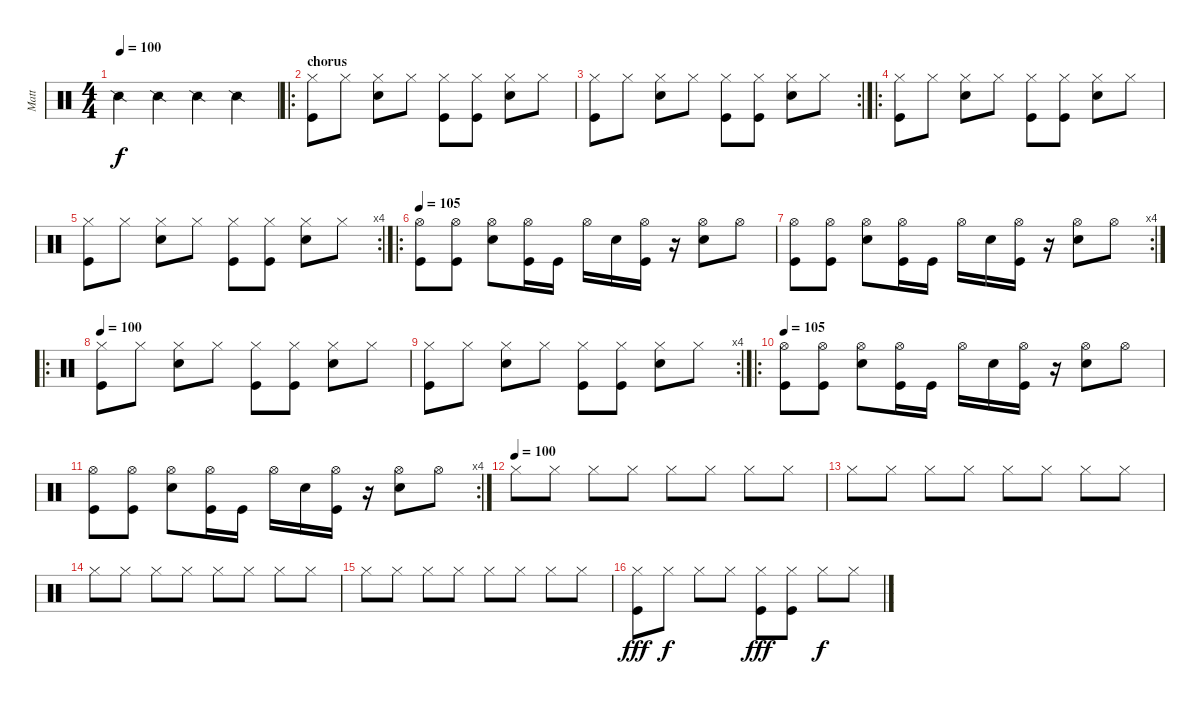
\track ("Matt" "Matt") {instrument percussion}
\staff {score}
\articulation defaults
\ts (4 4)
\tempo 100
\clef neutral
\ks c "Snare (side stick) 2".4{dy f} "Snare (side stick) 2".4 "Snare (side stick) 2".4 "Snare (side stick) 2".4
|
\ro
\section ("" "chorus")
("Hi-Hat (closed)" "Kick (hit)").8 "Hi-Hat (closed)".8 ("Hi-Hat (closed)" "Snare (hit) 2").8 "Hi-Hat (closed)".8 ("Hi-Hat (closed)" "Kick (hit)").8 ("Hi-Hat (closed)" "Kick (hit)").8 ("Hi-Hat (closed)" "Snare (hit) 2").8 "Hi-Hat (closed)".8 |
\rc 2
("Hi-Hat (closed)" "Kick (hit)").8 "Hi-Hat (closed)".8 ("Hi-Hat (closed)" "Snare (hit) 2").8 "Hi-Hat (closed)".8 ("Hi-Hat (closed)" "Kick (hit)").8 ("Hi-Hat (closed)" "Kick (hit)").8 ("Hi-Hat (closed)" "Snare (hit) 2").8 "Hi-Hat (closed)".8 |
\ro
("Hi-Hat (closed)" "Kick (hit)").8 "Hi-Hat (closed)".8 ("Hi-Hat (closed)" "Snare (hit) 2").8 "Hi-Hat (closed)".8 ("Hi-Hat (closed)" "Kick (hit)").8 ("Hi-Hat (closed)" "Kick (hit)").8 ("Hi-Hat (closed)" "Snare (hit) 2").8 "Hi-Hat (closed)".8 |
\rc 4
("Hi-Hat (closed)" "Kick (hit)").8 "Hi-Hat (closed)".8 ("Hi-Hat (closed)" "Snare (hit) 2").8 "Hi-Hat (closed)".8 ("Hi-Hat (closed)" "Kick (hit)").8 ("Hi-Hat (closed)" "Kick (hit)").8 ("Hi-Hat (closed)" "Snare (hit) 2").8 "Hi-Hat (closed)".8 |
\ro
\tempo 105
("Hi-Hat (open)" "Kick (hit)").8 ("Hi-Hat (open)" "Kick (hit)").8 ("Hi-Hat (open)" "Snare (hit) 2").8 ("Hi-Hat (open)" "Kick (hit)").16 "Kick (hit)".16 "Hi-Hat (open)".16 "Snare (hit) 2".16 ("Hi-Hat (open)" "Kick (hit)").16 r.16 ("Hi-Hat (open)" "Snare (hit) 2").8 "Hi-Hat (open)".8 |
\rc 4
("Hi-Hat (open)" "Kick (hit)").8 ("Hi-Hat (open)" "Kick (hit)").8 ("Hi-Hat (open)" "Snare (hit) 2").8 ("Hi-Hat (open)" "Kick (hit)").16 "Kick (hit)".16 "Hi-Hat (open)".16 "Snare (hit) 2".16 ("Hi-Hat (open)" "Kick (hit)").16 r.16 ("Hi-Hat (open)" "Snare (hit) 2").8 "Hi-Hat (open)".8 |
\ro
\tempo 100
("Hi-Hat (closed)" "Kick (hit)").8 "Hi-Hat (closed)".8 ("Hi-Hat (closed)" "Snare (hit) 2").8 "Hi-Hat (closed)".8 ("Hi-Hat (closed)" "Kick (hit)").8 ("Hi-Hat (closed)" "Kick (hit)").8 ("Hi-Hat (closed)" "Snare (hit) 2").8 "Hi-Hat (closed)".8 |
\rc 4
("Hi-Hat (closed)" "Kick (hit)").8 "Hi-Hat (closed)".8 ("Hi-Hat (closed)" "Snare (hit) 2").8 "Hi-Hat (closed)".8 ("Hi-Hat (closed)" "Kick (hit)").8 ("Hi-Hat (closed)" "Kick (hit)").8 ("Hi-Hat (closed)" "Snare (hit) 2").8 "Hi-Hat (closed)".8 |
\ro
\tempo 105
("Hi-Hat (open)" "Kick (hit)").8 ("Hi-Hat (open)" "Kick (hit)").8 ("Hi-Hat (open)" "Snare (hit) 2").8 ("Hi-Hat (open)" "Kick (hit)").16 "Kick (hit)".16 "Hi-Hat (open)".16 "Snare (hit) 2".16 ("Hi-Hat (open)" "Kick (hit)").16 r.16 ("Hi-Hat (open)" "Snare (hit) 2").8 "Hi-Hat (open)".8 |
\rc 4
("Hi-Hat (open)" "Kick (hit)").8 ("Hi-Hat (open)" "Kick (hit)").8 ("Hi-Hat (open)" "Snare (hit) 2").8 ("Hi-Hat (open)" "Kick (hit)").16 "Kick (hit)".16 "Hi-Hat (open)".16 "Snare (hit) 2".16 ("Hi-Hat (open)" "Kick (hit)").16 r.16 ("Hi-Hat (open)" "Snare (hit) 2").8 "Hi-Hat (open)".8 |
\tempo (100)
"Hi-Hat (closed)".8 "Hi-Hat (closed)".8 "Hi-Hat (closed)".8 "Hi-Hat (closed)".8 "Hi-Hat (closed)".8 "Hi-Hat (closed)".8 "Hi-Hat (closed)".8 "Hi-Hat (closed)".8 |
"Hi-Hat (closed)".8 "Hi-Hat (closed)".8 "Hi-Hat (closed)".8 "Hi-Hat (closed)".8 "Hi-Hat (closed)".8 "Hi-Hat (closed)".8 "Hi-Hat (closed)".8 "Hi-Hat (closed)".8 |
"Hi-Hat (closed)".8 "Hi-Hat (closed)".8 "Hi-Hat (closed)".8 "Hi-Hat (closed)".8 "Hi-Hat (closed)".8 "Hi-Hat (closed)".8 "Hi-Hat (closed)".8 "Hi-Hat (closed)".8 |
"Hi-Hat (closed)".8 "Hi-Hat (closed)".8 "Hi-Hat (closed)".8 "Hi-Hat (closed)".8 "Hi-Hat (closed)".8 "Hi-Hat (closed)".8 "Hi-Hat (closed)".8 "Hi-Hat (closed)".8 |
("Hi-Hat (closed)" "Kick (hit)").8{dy fff} "Hi-Hat (closed)".8{dy f} "Hi-Hat (closed)".8 "Hi-Hat (closed)".8 ("Hi-Hat (closed)" "Kick (hit)").8{dy fff} ("Hi-Hat (closed)" "Kick (hit)").8 "Hi-Hat (closed)".8{dy f} "Hi-Hat (closed)".8
